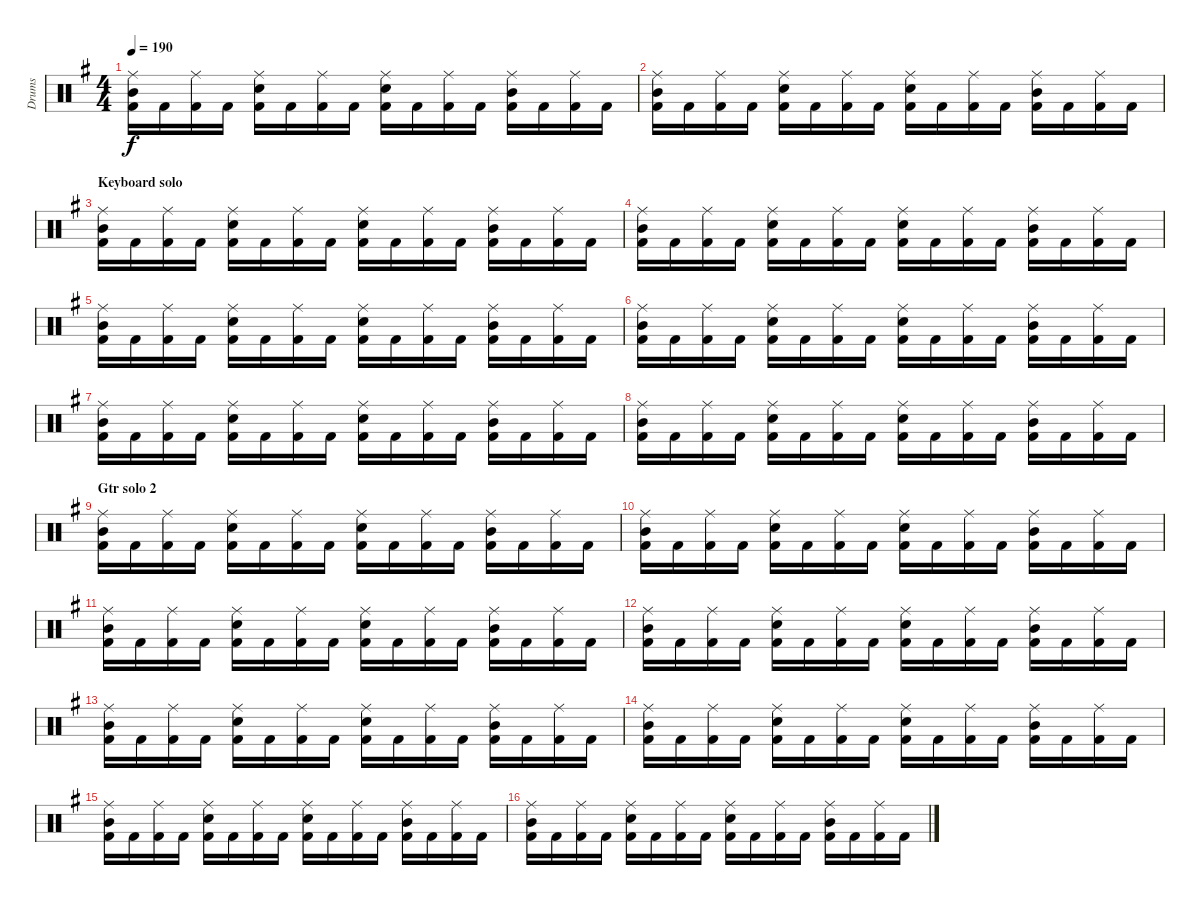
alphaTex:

\track ("Drums" "Drums") {instrument percussion}
\staff {score}
\articulation defaults
\ts (4 4)
\tempo 190
\clef neutral
\ks eminor
("Ride (middle)" "Mid Tom (hit)" "Kick (hit) 2").16{dy f} "Kick (hit) 2".16 ("Ride (middle)" "Kick (hit) 2").16 "Kick (hit) 2".16 ("Ride (middle)" "Electric Snare (hit)" "Kick (hit) 2").16 "Kick (hit) 2".16 ("Ride (middle)" "Kick (hit) 2").16 "Kick (hit) 2".16 ("Ride (middle)" "Electric Snare (hit)" "Kick (hit) 2").16 "Kick (hit) 2".16 ("Ride (middle)" "Kick (hit) 2").16 "Kick (hit) 2".16 ("Ride (middle)" "Mid Tom (hit)" "Kick (hit) 2").16 "Kick (hit) 2".16 ("Ride (middle)" "Kick (hit) 2").16 "Kick (hit) 2".16 |
("Ride (middle)" "Mid Tom (hit)" "Kick (hit) 2").16 "Kick (hit) 2".16 ("Ride (middle)" "Kick (hit) 2").16 "Kick (hit) 2".16 ("Ride (middle)" "Electric Snare (hit)" "Kick (hit) 2").16 "Kick (hit) 2".16 ("Ride (middle)" "Kick (hit) 2").16 "Kick (hit) 2".16 ("Ride (middle)" "Electric Snare (hit)" "Kick (hit) 2").16 "Kick (hit) 2".16 ("Ride (middle)" "Kick (hit) 2").16 "Kick (hit) 2".16 ("Ride (middle)" "Mid Tom (hit)" "Kick (hit) 2").16 "Kick (hit) 2".16 ("Ride (middle)" "Kick (hit) 2").16 "Kick (hit) 2".16 |
\section ("" "Keyboard solo")
("Ride (middle)" "Mid Tom (hit)" "Kick (hit) 2").16 "Kick (hit) 2".16 ("Ride (middle)" "Kick (hit) 2").16 "Kick (hit) 2".16 ("Ride (middle)" "Electric Snare (hit)" "Kick (hit) 2").16 "Kick (hit) 2".16 ("Ride (middle)" "Kick (hit) 2").16 "Kick (hit) 2".16 ("Ride (middle)" "Electric Snare (hit)" "Kick (hit) 2").16 "Kick (hit) 2".16 ("Ride (middle)" "Kick (hit) 2").16 "Kick (hit) 2".16 ("Ride (middle)" "Mid Tom (hit)" "Kick (hit) 2").16 "Kick (hit) 2".16 ("Ride (middle)" "Kick (hit) 2").16 "Kick (hit) 2".16 |
("Ride (middle)" "Mid Tom (hit)" "Kick (hit) 2").16 "Kick (hit) 2".16 ("Ride (middle)" "Kick (hit) 2").16 "Kick (hit) 2".16 ("Ride (middle)" "Electric Snare (hit)" "Kick (hit) 2").16 "Kick (hit) 2".16 ("Ride (middle)" "Kick (hit) 2").16 "Kick (hit) 2".16 ("Ride (middle)" "Electric Snare (hit)" "Kick (hit) 2").16 "Kick (hit) 2".16 ("Ride (middle)" "Kick (hit) 2").16 "Kick (hit) 2".16 ("Ride (middle)" "Mid Tom (hit)" "Kick (hit) 2").16 "Kick (hit) 2".16 ("Ride (middle)" "Kick (hit) 2").16 "Kick (hit) 2".16 |
("Ride (middle)" "Mid Tom (hit)" "Kick (hit) 2").16 "Kick (hit) 2".16 ("Ride (middle)" "Kick (hit) 2").16 "Kick (hit) 2".16 ("Ride (middle)" "Electric Snare (hit)" "Kick (hit) 2").16 "Kick (hit) 2".16 ("Ride (middle)" "Kick (hit) 2").16 "Kick (hit) 2".16 ("Ride (middle)" "Electric Snare (hit)" "Kick (hit) 2").16 "Kick (hit) 2".16 ("Ride (middle)" "Kick (hit) 2").16 "Kick (hit) 2".16 ("Ride (middle)" "Mid Tom (hit)" "Kick (hit) 2").16 "Kick (hit) 2".16 ("Ride (middle)" "Kick (hit) 2").16 "Kick (hit) 2".16 |
("Ride (middle)" "Mid Tom (hit)" "Kick (hit) 2").16 "Kick (hit) 2".16 ("Ride (middle)" "Kick (hit) 2").16 "Kick (hit) 2".16 ("Ride (middle)" "Electric Snare (hit)" "Kick (hit) 2").16 "Kick (hit) 2".16 ("Ride (middle)" "Kick (hit) 2").16 "Kick (hit) 2".16 ("Ride (middle)" "Electric Snare (hit)" "Kick (hit) 2").16 "Kick (hit) 2".16 ("Ride (middle)" "Kick (hit) 2").16 "Kick (hit) 2".16 ("Ride (middle)" "Mid Tom (hit)" "Kick (hit) 2").16 "Kick (hit) 2".16 ("Ride (middle)" "Kick (hit) 2").16 "Kick (hit) 2".16 |
("Ride (middle)" "Mid Tom (hit)" "Kick (hit) 2").16 "Kick (hit) 2".16 ("Ride (middle)" "Kick (hit) 2").16 "Kick (hit) 2".16 ("Ride (middle)" "Electric Snare (hit)" "Kick (hit) 2").16 "Kick (hit) 2".16 ("Ride (middle)" "Kick (hit) 2").16 "Kick (hit) 2".16 ("Ride (middle)" "Electric Snare (hit)" "Kick (hit) 2").16 "Kick (hit) 2".16 ("Ride (middle)" "Kick (hit) 2").16 "Kick (hit) 2".16 ("Ride (middle)" "Mid Tom (hit)" "Kick (hit) 2").16 "Kick (hit) 2".16 ("Ride (middle)" "Kick (hit) 2").16 "Kick (hit) 2".16 |
("Ride (middle)" "Mid Tom (hit)" "Kick (hit) 2").16 "Kick (hit) 2".16 ("Ride (middle)" "Kick (hit) 2").16 "Kick (hit) 2".16 ("Ride (middle)" "Electric Snare (hit)" "Kick (hit) 2").16 "Kick (hit) 2".16 ("Ride (middle)" "Kick (hit) 2").16 "Kick (hit) 2".16 ("Ride (middle)" "Electric Snare (hit)" "Kick (hit) 2").16 "Kick (hit) 2".16 ("Ride (middle)" "Kick (hit) 2").16 "Kick (hit) 2".16 ("Ride (middle)" "Mid Tom (hit)" "Kick (hit) 2").16 "Kick (hit) 2".16 ("Ride (middle)" "Kick (hit) 2").16 "Kick (hit) 2".16 |
\section ("" "Gtr solo 2")
("Ride (middle)" "Mid Tom (hit)" "Kick (hit) 2").16 "Kick (hit) 2".16 ("Ride (middle)" "Kick (hit) 2").16 "Kick (hit) 2".16 ("Ride (middle)" "Electric Snare (hit)" "Kick (hit) 2").16 "Kick (hit) 2".16 ("Ride (middle)" "Kick (hit) 2").16 "Kick (hit) 2".16 ("Ride (middle)" "Electric Snare (hit)" "Kick (hit) 2").16 "Kick (hit) 2".16 ("Ride (middle)" "Kick (hit) 2").16 "Kick (hit) 2".16 ("Ride (middle)" "Mid Tom (hit)" "Kick (hit) 2").16 "Kick (hit) 2".16 ("Ride (middle)" "Kick (hit) 2").16 "Kick (hit) 2".16 |
("Ride (middle)" "Mid Tom (hit)" "Kick (hit) 2").16 "Kick (hit) 2".16 ("Ride (middle)" "Kick (hit) 2").16 "Kick (hit) 2".16 ("Ride (middle)" "Electric Snare (hit)" "Kick (hit) 2").16 "Kick (hit) 2".16 ("Ride (middle)" "Kick (hit) 2").16 "Kick (hit) 2".16 ("Ride (middle)" "Electric Snare (hit)" "Kick (hit) 2").16 "Kick (hit) 2".16 ("Ride (middle)" "Kick (hit) 2").16 "Kick (hit) 2".16 ("Ride (middle)" "Mid Tom (hit)" "Kick (hit) 2").16 "Kick (hit) 2".16 ("Ride (middle)" "Kick (hit) 2").16 "Kick (hit) 2".16 |
("Ride (middle)" "Mid Tom (hit)" "Kick (hit) 2").16 "Kick (hit) 2".16 ("Ride (middle)" "Kick (hit) 2").16 "Kick (hit) 2".16 ("Ride (middle)" "Electric Snare (hit)" "Kick (hit) 2").16 "Kick (hit) 2".16 ("Ride (middle)" "Kick (hit) 2").16 "Kick (hit) 2".16 ("Ride (middle)" "Electric Snare (hit)" "Kick (hit) 2").16 "Kick (hit) 2".16 ("Ride (middle)" "Kick (hit) 2").16 "Kick (hit) 2".16 ("Ride (middle)" "Mid Tom (hit)" "Kick (hit) 2").16 "Kick (hit) 2".16 ("Ride (middle)" "Kick (hit) 2").16 "Kick (hit) 2".16 |
("Ride (middle)" "Mid Tom (hit)" "Kick (hit) 2").16 "Kick (hit) 2".16 ("Ride (middle)" "Kick (hit) 2").16 "Kick (hit) 2".16 ("Ride (middle)" "Electric Snare (hit)" "Kick (hit) 2").16 "Kick (hit) 2".16 ("Ride (middle)" "Kick (hit) 2").16 "Kick (hit) 2".16 ("Ride (middle)" "Electric Snare (hit)" "Kick (hit) 2").16 "Kick (hit) 2".16 ("Ride (middle)" "Kick (hit) 2").16 "Kick (hit) 2".16 ("Ride (middle)" "Mid Tom (hit)" "Kick (hit) 2").16 "Kick (hit) 2".16 ("Ride (middle)" "Kick (hit) 2").16 "Kick (hit) 2".16 |
("Ride (middle)" "Mid Tom (hit)" "Kick (hit) 2").16 "Kick (hit) 2".16 ("Ride (middle)" "Kick (hit) 2").16 "Kick (hit) 2".16 ("Ride (middle)" "Electric Snare (hit)" "Kick (hit) 2").16 "Kick (hit) 2".16 ("Ride (middle)" "Kick (hit) 2").16 "Kick (hit) 2".16 ("Ride (middle)" "Electric Snare (hit)" "Kick (hit) 2").16 "Kick (hit) 2".16 ("Ride (middle)" "Kick (hit) 2").16 "Kick (hit) 2".16 ("Ride (middle)" "Mid Tom (hit)" "Kick (hit) 2").16 "Kick (hit) 2".16 ("Ride (middle)" "Kick (hit) 2").16 "Kick (hit) 2".16 |
("Ride (middle)" "Mid Tom (hit)" "Kick (hit) 2").16 "Kick (hit) 2".16 ("Ride (middle)" "Kick (hit) 2").16 "Kick (hit) 2".16 ("Ride (middle)" "Electric Snare (hit)" "Kick (hit) 2").16 "Kick (hit) 2".16 ("Ride (middle)" "Kick (hit) 2").16 "Kick (hit) 2".16 ("Ride (middle)" "Electric Snare (hit)" "Kick (hit) 2").16 "Kick (hit) 2".16 ("Ride (middle)" "Kick (hit) 2").16 "Kick (hit) 2".16 ("Ride (middle)" "Mid Tom (hit)" "Kick (hit) 2").16 "Kick (hit) 2".16 ("Ride (middle)" "Kick (hit) 2").16 "Kick (hit) 2".16 |
("Ride (middle)" "Mid Tom (hit)" "Kick (hit) 2").16 "Kick (hit) 2".16 ("Ride (middle)" "Kick (hit) 2").16 "Kick (hit) 2".16 ("Ride (middle)" "Electric Snare (hit)" "Kick (hit) 2").16 "Kick (hit) 2".16 ("Ride (middle)" "Kick (hit) 2").16 "Kick (hit) 2".16 ("Ride (middle)" "Electric Snare (hit)" "Kick (hit) 2").16 "Kick (hit) 2".16 ("Ride (middle)" "Kick (hit) 2").16 "Kick (hit) 2".16 ("Ride (middle)" "Mid Tom (hit)" "Kick (hit) 2").16 "Kick (hit) 2".16 ("Ride (middle)" "Kick (hit) 2").16 "Kick (hit) 2".16 |
("Ride (middle)" "Mid Tom (hit)" "Kick (hit) 2").16 "Kick (hit) 2".16 ("Ride (middle)" "Kick (hit) 2").16 "Kick (hit) 2".16 ("Ride (middle)" "Electric Snare (hit)" "Kick (hit) 2").16 "Kick (hit) 2".16 ("Ride (middle)" "Kick (hit) 2").16 "Kick (hit) 2".16 ("Ride (middle)" "Electric Snare (hit)" "Kick (hit) 2").16 "Kick (hit) 2".16 ("Ride (middle)" "Kick (hit) 2").16 "Kick (hit) 2".16 ("Ride (middle)" "Mid Tom (hit)" "Kick (hit) 2").16 "Kick (hit) 2".16 ("Ride (middle)" "Kick (hit) 2").16 "Kick (hit) 2".16
